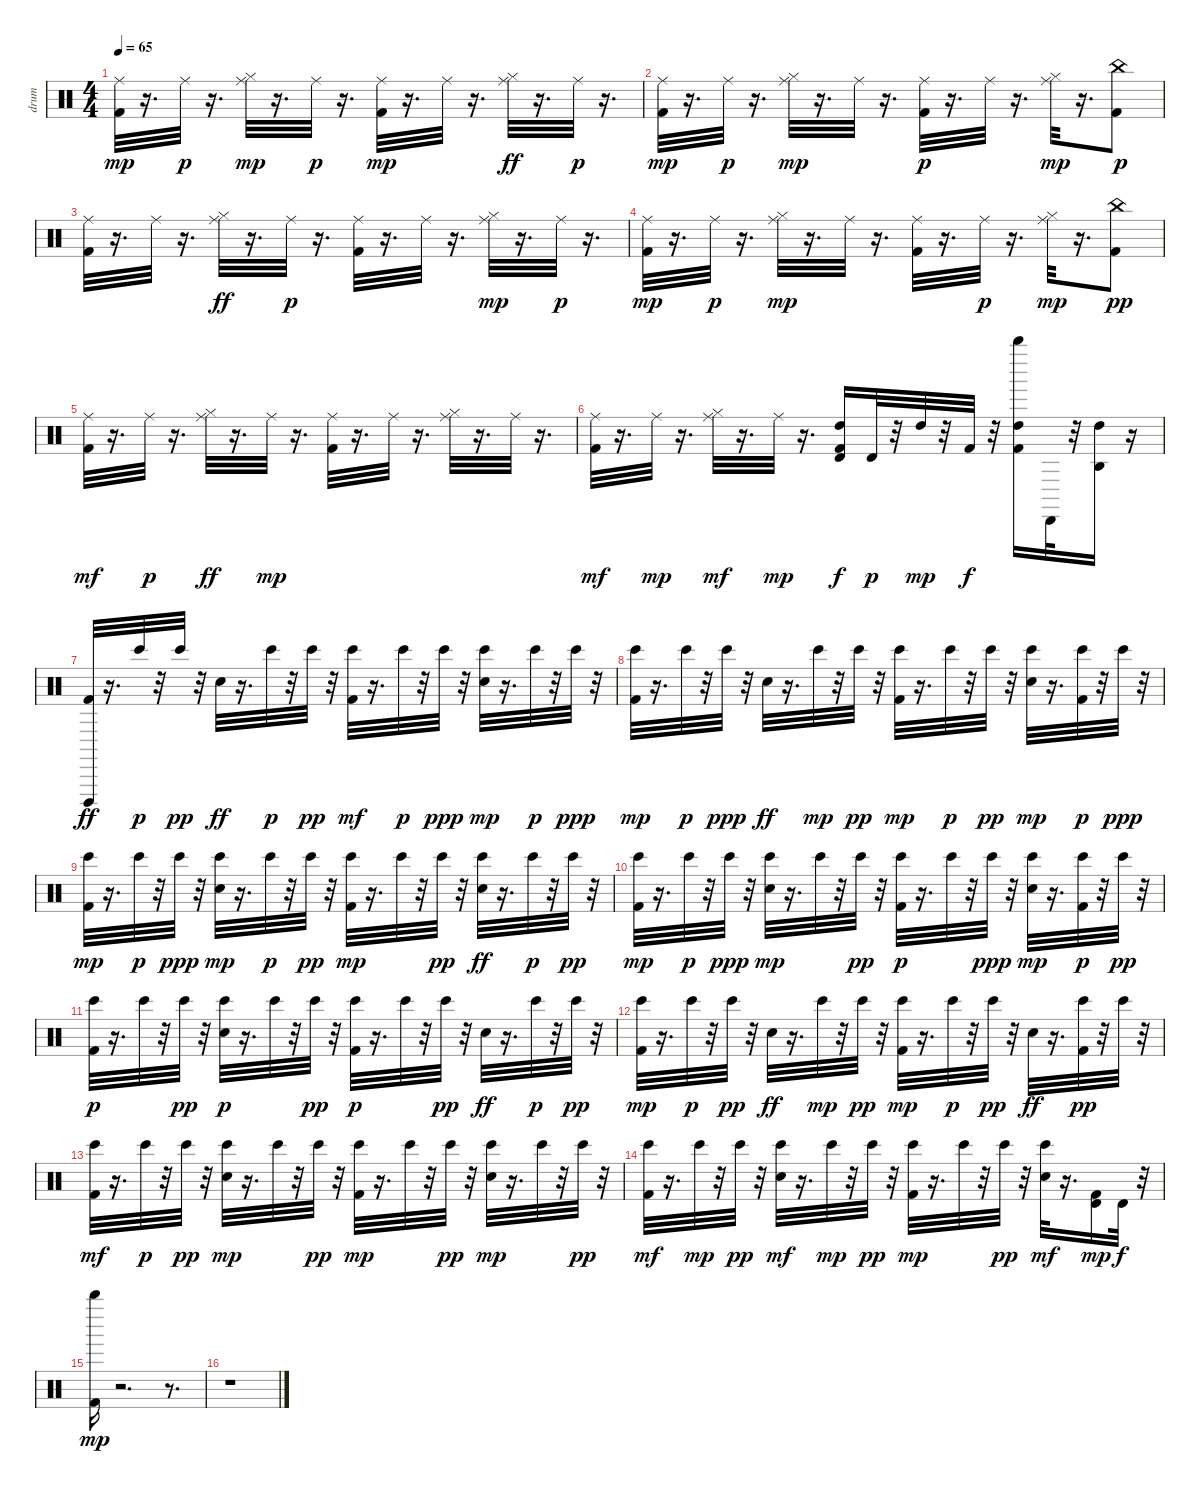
\track ("drum" "drum") {instrument percussion}
\staff {score}
\articulation defaults
\ts (4 4)
\tempo 65
\clef neutral
\ks c
("Kick (hit) 2" "Ride (middle)").32{dy mp} r.16{d} "Ride (middle)".32{dy p} r.16{d} ("Hi-Hat (closed)" "Ride (middle)").32{dy mp} r.16{d} "Ride (middle)".32{dy p} r.16{d} ("Ride (middle)" "Kick (hit) 2").32{dy mp} r.16{d} "Ride (middle)".32 r.16{d} ("Ride (middle)" "Hi-Hat (closed)").32{dy ff} r.16{d} "Ride (middle)".32{dy p} r.16{d} |
("Kick (hit) 2" "Ride (middle)").32{dy mp} r.16{d} "Ride (middle)".32{dy p} r.16{d} ("Hi-Hat (closed)" "Ride (middle)").32{dy mp} r.16{d} "Ride (middle)".32 r.16{d} ("Kick (hit) 2" "Ride (middle)").32{dy p} r.16{d} "Ride (middle)".32 r.16{d} ("Hi-Hat (closed)" "Ride (middle)").32{dy mp} r.16{d} ("Kick (hit) 2" "China (hit)").8{dy p} |
("Kick (hit) 2" "Ride (middle)").32 r.16{d} "Ride (middle)".32 r.16{d} ("Ride (middle)" "Hi-Hat (closed)").32{dy ff} r.16{d} "Ride (middle)".32{dy p} r.16{d} ("Kick (hit) 2" "Ride (middle)").32 r.16{d} "Ride (middle)".32 r.16{d} ("Hi-Hat (closed)" "Ride (middle)").32{dy mp} r.16{d} "Ride (middle)".32{dy p} r.16{d} |
("Ride (middle)" "Kick (hit) 2").32{dy mp} r.16{d} "Ride (middle)".32{dy p} r.16{d} ("Hi-Hat (closed)" "Ride (middle)").32{dy mp} r.16{d} "Ride (middle)".32 r.16{d} ("Kick (hit) 2" "Ride (middle)").32 r.16{d} "Ride (middle)".32{dy p} r.16{d} ("Hi-Hat (closed)" "Ride (middle)").32{dy mp} r.16{d} ("Kick (hit) 2" "China (hit)").8{dy pp} |
("Ride (middle)" "Kick (hit) 2").32{dy mf} r.16{d} "Ride (middle)".32{dy p} r.16{d} ("Ride (middle)" "Hi-Hat (closed)").32{dy ff} r.16{d} "Ride (middle)".32{dy mp} r.16{d} ("Ride (middle)" "Kick (hit) 2").32 r.16{d} "Ride (middle)".32 r.16{d} ("Hi-Hat (closed)" "Ride (middle)").32 r.16{d} "Ride (middle)".32 r.16{d} |
("Ride (middle)" "Kick (hit) 2").32{dy mf} r.16{d} "Ride (middle)".32{dy mp} r.16{d} ("Hi-Hat (closed)" "Ride (middle)").32{dy mf} r.16{d} "Ride (middle)".32{dy mp} r.16{d} ("Kick (hit) 2" "High Tom (hit)" "Timbale high (hit)").16{dy f} "Timbale high (hit)".32{dy p} r.32 "High Tom (hit)".32{dy mp} r.32 "Kick (hit) 2".32{dy f} r.32 ("High Tom (hit)" "Kick (hit) 2" "Whistle high (hit)").16 "Cabasa (hit)".32 r.32 ("High Tom (hit)" "Agogo high (hit)").16 r.16 |
("Kick (hit) 2" "Cuica (open)").32{dy ff} r.16{d} "Bongo High (hit)".32{dy p} r.32 "Bongo High (hit)".32{dy pp} r.32 "Snare (hit) 2".32{dy ff} r.16{d} "Bongo High (hit)".32{dy p} r.32 "Bongo High (hit)".32{dy pp} r.32 ("Bongo High (hit)" "Kick (hit) 2").32{dy mf} r.16{d} "Bongo High (hit)".32{dy p} r.32 "Bongo High (hit)".32{dy ppp} r.32 ("Snare (hit) 2" "Bongo High (hit)").32{dy mp} r.16{d} "Bongo High (hit)".32{dy p} r.32 "Bongo High (hit)".32{dy ppp} r.32 |
("Kick (hit) 2" "Bongo High (hit)").32{dy mp} r.16{d} "Bongo High (hit)".32{dy p} r.32 "Bongo High (hit)".32{dy ppp} r.32 "Snare (hit) 2".32{dy ff} r.16{d} "Bongo High (hit)".32{dy mp} r.32 "Bongo High (hit)".32{dy pp} r.32 ("Kick (hit) 2" "Bongo High (hit)").32{dy mp} r.16{d} "Bongo High (hit)".32{dy p} r.32 "Bongo High (hit)".32{dy pp} r.32 ("Snare (hit) 2" "Bongo High (hit)").32{dy mp} r.16{d} ("Kick (hit) 2" "Bongo High (hit)").32{dy p} r.32 "Bongo High (hit)".32{dy ppp} r.32 |
("Kick (hit) 2" "Bongo High (hit)").32{dy mp} r.16{d} "Bongo High (hit)".32{dy p} r.32 "Bongo High (hit)".32{dy ppp} r.32 ("Snare (hit) 2" "Bongo High (hit)").32{dy mp} r.16{d} "Bongo High (hit)".32{dy p} r.32 "Bongo High (hit)".32{dy pp} r.32 ("Bongo High (hit)" "Kick (hit) 2").32{dy mp} r.16{d} "Bongo High (hit)".32 r.32 "Bongo High (hit)".32{dy pp} r.32 ("Bongo High (hit)" "Snare (hit) 2").32{dy ff} r.16{d} "Bongo High (hit)".32{dy p} r.32 "Bongo High (hit)".32{dy pp} r.32 |
("Kick (hit) 2" "Bongo High (hit)").32{dy mp} r.16{d} "Bongo High (hit)".32{dy p} r.32 "Bongo High (hit)".32{dy ppp} r.32 ("Snare (hit) 2" "Bongo High (hit)").32{dy mp} r.16{d} "Bongo High (hit)".32 r.32 "Bongo High (hit)".32{dy pp} r.32 ("Kick (hit) 2" "Bongo High (hit)").32{dy p} r.16{d} "Bongo High (hit)".32 r.32 "Bongo High (hit)".32{dy ppp} r.32 ("Snare (hit) 2" "Bongo High (hit)").32{dy mp} r.16{d} ("Kick (hit) 2" "Bongo High (hit)").32{dy p} r.32 "Bongo High (hit)".32{dy pp} r.32 |
("Kick (hit) 2" "Bongo High (hit)").32{dy p} r.16{d} "Bongo High (hit)".32 r.32 "Bongo High (hit)".32{dy pp} r.32 ("Snare (hit) 2" "Bongo High (hit)").32{dy p} r.16{d} "Bongo High (hit)".32 r.32 "Bongo High (hit)".32{dy pp} r.32 ("Kick (hit) 2" "Bongo High (hit)").32{dy p} r.16{d} "Bongo High (hit)".32 r.32 "Bongo High (hit)".32{dy pp} r.32 "Snare (hit) 2".32{dy ff} r.16{d} "Bongo High (hit)".32{dy p} r.32 "Bongo High (hit)".32{dy pp} r.32 |
("Bongo High (hit)" "Kick (hit) 2").32{dy mp} r.16{d} "Bongo High (hit)".32{dy p} r.32 "Bongo High (hit)".32{dy pp} r.32 "Snare (hit) 2".32{dy ff} r.16{d} "Bongo High (hit)".32{dy mp} r.32 "Bongo High (hit)".32{dy pp} r.32 ("Kick (hit) 2" "Bongo High (hit)").32{dy mp} r.16{d} "Bongo High (hit)".32{dy p} r.32 "Bongo High (hit)".32{dy pp} r.32 "Snare (hit) 2".32{dy ff} r.16{d} ("Kick (hit) 2" "Bongo High (hit)").32{dy pp} r.32 "Bongo High (hit)".32 r.32 |
("Bongo High (hit)" "Kick (hit) 2").32{dy mf} r.16{d} "Bongo High (hit)".32{dy p} r.32 "Bongo High (hit)".32{dy pp} r.32 ("Snare (hit) 2" "Bongo High (hit)").32{dy mp} r.16{d} "Bongo High (hit)".32 r.32 "Bongo High (hit)".32{dy pp} r.32 ("Bongo High (hit)" "Kick (hit) 2").32{dy mp} r.16{d} "Bongo High (hit)".32 r.32 "Bongo High (hit)".32{dy pp} r.32 ("Snare (hit) 2" "Bongo High (hit)").32{dy mp} r.16{d} "Bongo High (hit)".32 r.32 "Bongo High (hit)".32{dy pp} r.32 |
("Bongo High (hit)" "Kick (hit) 2").32{dy mf} r.16{d} "Bongo High (hit)".32{dy mp} r.32 "Bongo High (hit)".32{dy pp} r.32 ("Snare (hit) 2" "Bongo High (hit)").32{dy mf} r.16{d} "Bongo High (hit)".32{dy mp} r.32 "Bongo High (hit)".32{dy pp} r.32 ("Kick (hit) 2" "Bongo High (hit)").32{dy mp} r.16{d} "Bongo High (hit)".32 r.32 "Bongo High (hit)".32{dy pp} r.32 ("Snare (hit) 2" "Bongo High (hit)").32{dy mf} r.16{d} ("Kick (hit) 2" "Timbale high (hit)").16{dy mp} "Timbale high (hit)".32{dy f} r.32 |
("Kick (hit) 2" "Whistle high (hit)").16{dy mp} r.2{d} r.8{d} |
r.1
